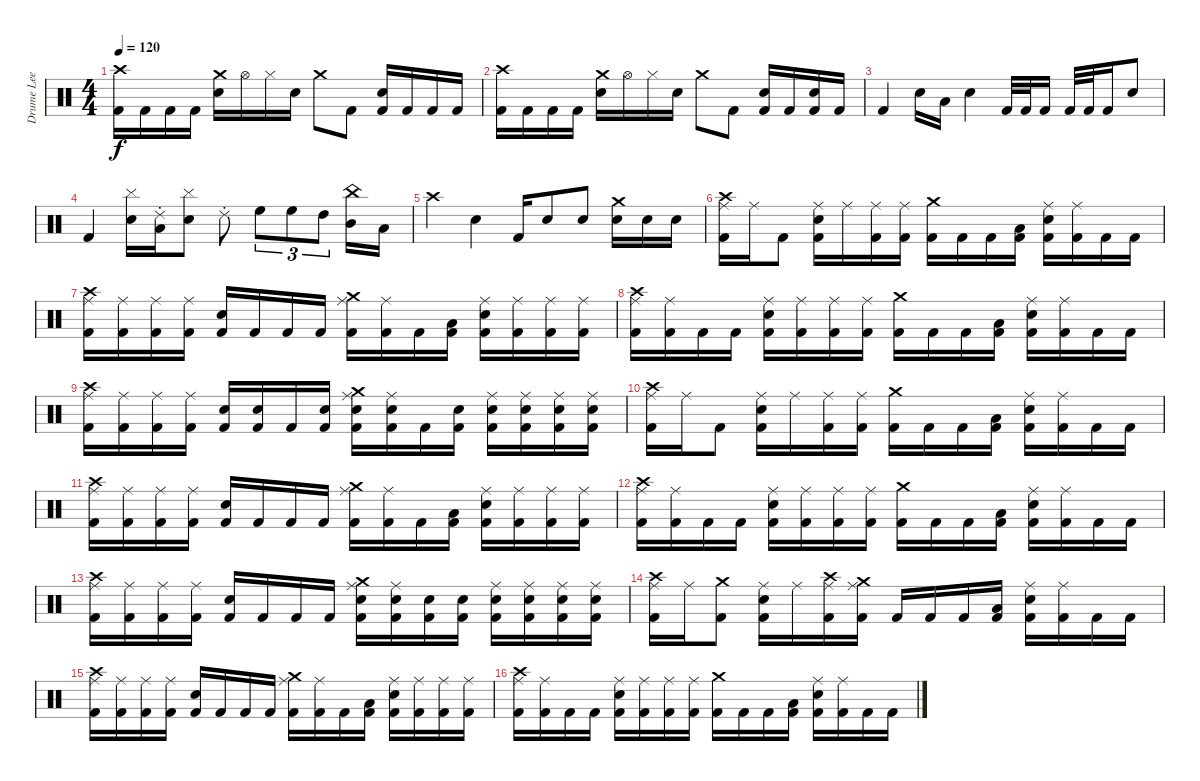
\track ("Drume Lee Jhones" "Drume Lee ") {instrument percussion}
\staff {score}
\articulation defaults
\ts (4 4)
\tempo 120
\clef neutral
\ks c
("Crash high (hit)" "Kick (hit) 2").16{dy f} "Kick (hit) 2".16 "Kick (hit) 2".16 "Kick (hit) 2".16 ("Crash medium (hit)" "Electric Snare (hit)").16 "Hi-Hat (open)".16 "Hi-Hat (closed)".16 "Electric Snare (hit)".16 "Crash medium (hit)".8 "Kick (hit) 2".8 ("Electric Snare (hit)" "Kick (hit) 2").16 "Kick (hit) 2".16 "Kick (hit) 2".16 "Kick (hit) 2".16 |
("Crash high (hit)" "Kick (hit) 2").16 "Kick (hit) 2".16 "Kick (hit) 2".16 "Kick (hit) 2".16 ("Crash medium (hit)" "Electric Snare (hit)").16 "Hi-Hat (open)".16 "Hi-Hat (closed)".16 "Electric Snare (hit)".16 "Crash medium (hit)".8 "Kick (hit) 2".8 ("Electric Snare (hit)" "Kick (hit) 2").16 "Kick (hit) 2".16 ("Electric Snare (hit)" "Kick (hit) 2").16 "Kick (hit) 2".16 |
"Kick (hit) 2".4 "Snare (hit) 2".16 "Low Tom (hit)".16 "Electric Snare (hit)".4 "Kick (hit) 2".32 "Kick (hit) 2".32 "Kick (hit) 2".16 "Kick (hit) 2".32 "Kick (hit) 2".32 "Kick (hit) 2".16 "Electric Snare (hit)".8 |
"Kick (hit) 2".4 ("Cymbal (hit)" "Snare (hit) 2").16 ("Ride (choke) 2" "Low Tom (hit)").16 ("Cymbal (hit)" "Electric Snare (hit)").8 "Ride (choke) 2".8 "High Floor Tom (hit)".8{tu (3 2)} "High Floor Tom (hit)".8{tu (3 2)} "High Tom (hit)".8{tu (3 2)} ("China (hit)" "Mid Tom (hit)").16 "Low Tom (hit)".16 |
"Crash high (hit)".4 "Electric Snare (hit)".4 "Kick (hit) 2".16 "Electric Snare (hit)".8 "Electric Snare (hit)".8 ("Crash medium (hit)" "Electric Snare (hit)").16 "Electric Snare (hit)".16 "Electric Snare (hit)".16 |
("Ride (middle)" "Crash high (hit)" "Kick (hit) 2").16 "Ride (middle)".16 "Kick (hit) 2".8 ("Ride (middle)" "Electric Snare (hit)" "Kick (hit) 2").16 "Ride (middle)".16 ("Ride (middle)" "Kick (hit) 2").16 ("Ride (middle)" "Kick (hit) 2").16 ("Crash medium (hit)" "Kick (hit) 2").16 "Kick (hit) 2".16 "Kick (hit) 2".16 ("Low Tom (hit)" "Kick (hit) 2").16 ("Ride (middle)" "Electric Snare (hit)" "Kick (hit) 2").16 ("Ride (middle)" "Kick (hit) 2").16 "Kick (hit) 2".16 "Kick (hit) 2".16 |
("Ride (middle)" "Crash high (hit)" "Kick (hit) 2").16 ("Ride (middle)" "Kick (hit) 2").16 ("Ride (middle)" "Kick (hit) 2").16 ("Ride (middle)" "Kick (hit) 2").16 ("Electric Snare (hit)" "Kick (hit) 2").16 "Kick (hit) 2".16 "Kick (hit) 2".16 "Kick (hit) 2".16 ("Ride (middle)" "Crash medium (hit)" "Kick (hit) 2").16 ("Ride (middle)" "Kick (hit) 2").16 "Kick (hit) 2".16 ("Low Tom (hit)" "Kick (hit) 2").16 ("Ride (middle)" "Electric Snare (hit)" "Kick (hit) 2").16 ("Ride (middle)" "Kick (hit) 2").16 ("Ride (middle)" "Kick (hit) 2").16 ("Ride (middle)" "Kick (hit) 2").16 |
("Ride (middle)" "Crash high (hit)" "Kick (hit) 2").16 ("Ride (middle)" "Kick (hit) 2").16 "Kick (hit) 2".16 "Kick (hit) 2".16 ("Ride (middle)" "Electric Snare (hit)" "Kick (hit) 2").16 ("Ride (middle)" "Kick (hit) 2").16 ("Ride (middle)" "Kick (hit) 2").16 ("Ride (middle)" "Kick (hit) 2").16 ("Crash medium (hit)" "Kick (hit) 2").16 "Kick (hit) 2".16 "Kick (hit) 2".16 ("Low Tom (hit)" "Kick (hit) 2").16 ("Ride (middle)" "Electric Snare (hit)" "Kick (hit) 2").16 ("Ride (middle)" "Kick (hit) 2").16 "Kick (hit) 2".16 "Kick (hit) 2".16 |
("Ride (middle)" "Crash high (hit)" "Kick (hit) 2").16 ("Ride (middle)" "Kick (hit) 2").16 ("Ride (middle)" "Kick (hit) 2").16 ("Ride (middle)" "Kick (hit) 2").16 ("Electric Snare (hit)" "Kick (hit) 2").16 ("Electric Snare (hit)" "Kick (hit) 2").16 "Kick (hit) 2".16 ("Electric Snare (hit)" "Kick (hit) 2").16 ("Ride (middle)" "Crash medium (hit)" "Electric Snare (hit)" "Kick (hit) 2").16 ("Ride (middle)" "Electric Snare (hit)" "Kick (hit) 2").16 "Kick (hit) 2".16 ("Electric Snare (hit)" "Kick (hit) 2").16 ("Ride (middle)" "Electric Snare (hit)" "Kick (hit) 2").16 ("Ride (middle)" "Electric Snare (hit)" "Kick (hit) 2").16 ("Ride (middle)" "Electric Snare (hit)" "Kick (hit) 2").16 ("Ride (middle)" "Electric Snare (hit)" "Kick (hit) 2").16 |
("Ride (middle)" "Crash high (hit)" "Kick (hit) 2").16 "Ride (middle)".16 "Kick (hit) 2".8 ("Ride (middle)" "Snare (hit) 2" "Kick (hit) 2").16 "Ride (middle)".16 ("Ride (middle)" "Kick (hit) 2").16 ("Ride (middle)" "Kick (hit) 2").16 ("Crash medium (hit)" "Kick (hit) 2").16 "Kick (hit) 2".16 "Kick (hit) 2".16 ("Low Tom (hit)" "Kick (hit) 2").16 ("Ride (middle)" "Snare (hit) 2" "Kick (hit) 2").16 ("Ride (middle)" "Kick (hit) 2").16 "Kick (hit) 2".16 "Kick (hit) 2".16 |
("Ride (middle)" "Crash high (hit)" "Kick (hit) 2").16 ("Ride (middle)" "Kick (hit) 2").16 ("Ride (middle)" "Kick (hit) 2").16 ("Ride (middle)" "Kick (hit) 2").16 ("Snare (hit) 2" "Kick (hit) 2").16 "Kick (hit) 2".16 "Kick (hit) 2".16 "Kick (hit) 2".16 ("Ride (middle)" "Crash medium (hit)" "Kick (hit) 2").16 ("Ride (middle)" "Kick (hit) 2").16 "Kick (hit) 2".16 ("Low Tom (hit)" "Kick (hit) 2").16 ("Ride (middle)" "Snare (hit) 2" "Kick (hit) 2").16 ("Ride (middle)" "Kick (hit) 2").16 ("Ride (middle)" "Kick (hit) 2").16 ("Ride (middle)" "Kick (hit) 2").16 |
("Ride (middle)" "Crash high (hit)" "Kick (hit) 2").16 ("Ride (middle)" "Kick (hit) 2").16 "Kick (hit) 2".16 "Kick (hit) 2".16 ("Ride (middle)" "Snare (hit) 2" "Kick (hit) 2").16 ("Ride (middle)" "Kick (hit) 2").16 ("Ride (middle)" "Kick (hit) 2").16 ("Ride (middle)" "Kick (hit) 2").16 ("Crash medium (hit)" "Kick (hit) 2").16 "Kick (hit) 2".16 "Kick (hit) 2".16 ("Low Tom (hit)" "Kick (hit) 2").16 ("Ride (middle)" "Snare (hit) 2" "Kick (hit) 2").16 ("Ride (middle)" "Kick (hit) 2").16 "Kick (hit) 2".16 "Kick (hit) 2".16 |
("Ride (middle)" "Crash high (hit)" "Kick (hit) 2").16 ("Ride (middle)" "Kick (hit) 2").16 ("Ride (middle)" "Kick (hit) 2").16 ("Ride (middle)" "Kick (hit) 2").16 ("Snare (hit) 2" "Kick (hit) 2").16 "Kick (hit) 2".16 "Kick (hit) 2".16 "Kick (hit) 2".16 ("Ride (middle)" "Crash medium (hit)" "Snare (hit) 2" "Kick (hit) 2").16 ("Ride (middle)" "Snare (hit) 2" "Kick (hit) 2").16 ("Snare (hit) 2" "Kick (hit) 2").16 ("Snare (hit) 2" "Kick (hit) 2").16 ("Ride (middle)" "Snare (hit) 2" "Kick (hit) 2").16 ("Ride (middle)" "Snare (hit) 2" "Kick (hit) 2").16 ("Ride (middle)" "Snare (hit) 2" "Kick (hit) 2").16 ("Ride (middle)" "Snare (hit) 2" "Kick (hit) 2").16 |
("Ride (middle)" "Crash high (hit)" "Kick (hit) 2").16 "Ride (middle)".16 ("Crash medium (hit)" "Kick (hit) 2").8 ("Ride (middle)" "Snare (hit) 2" "Kick (hit) 2").16 "Ride (middle)".16 ("Ride (middle)" "Crash high (hit)" "Kick (hit) 2").16 ("Ride (middle)" "Crash medium (hit)" "Kick (hit) 2").16 "Kick (hit) 2".16 "Kick (hit) 2".16 "Kick (hit) 2".16 ("Low Tom (hit)" "Kick (hit) 2").16 ("Ride (middle)" "Snare (hit) 2" "Kick (hit) 2").16 ("Ride (middle)" "Kick (hit) 2").16 "Kick (hit) 2".16 "Kick (hit) 2".16 |
("Ride (middle)" "Crash high (hit)" "Kick (hit) 2").16 ("Ride (middle)" "Kick (hit) 2").16 ("Ride (middle)" "Kick (hit) 2").16 ("Ride (middle)" "Kick (hit) 2").16 ("Snare (hit) 2" "Kick (hit) 2").16 "Kick (hit) 2".16 "Kick (hit) 2".16 "Kick (hit) 2".16 ("Ride (middle)" "Crash medium (hit)" "Kick (hit) 2").16 ("Ride (middle)" "Kick (hit) 2").16 "Kick (hit) 2".16 ("Low Tom (hit)" "Kick (hit) 2").16 ("Ride (middle)" "Snare (hit) 2" "Kick (hit) 2").16 ("Ride (middle)" "Kick (hit) 2").16 ("Ride (middle)" "Kick (hit) 2").16 ("Ride (middle)" "Kick (hit) 2").16 |
("Ride (middle)" "Crash high (hit)" "Kick (hit) 2").16 ("Ride (middle)" "Kick (hit) 2").16 "Kick (hit) 2".16 "Kick (hit) 2".16 ("Ride (middle)" "Snare (hit) 2" "Kick (hit) 2").16 ("Ride (middle)" "Kick (hit) 2").16 ("Ride (middle)" "Kick (hit) 2").16 ("Ride (middle)" "Kick (hit) 2").16 ("Crash medium (hit)" "Kick (hit) 2").16 "Kick (hit) 2".16 "Kick (hit) 2".16 ("Low Tom (hit)" "Kick (hit) 2").16 ("Ride (middle)" "Snare (hit) 2" "Kick (hit) 2").16 ("Ride (middle)" "Kick (hit) 2").16 "Kick (hit) 2".16 "Kick (hit) 2".16
